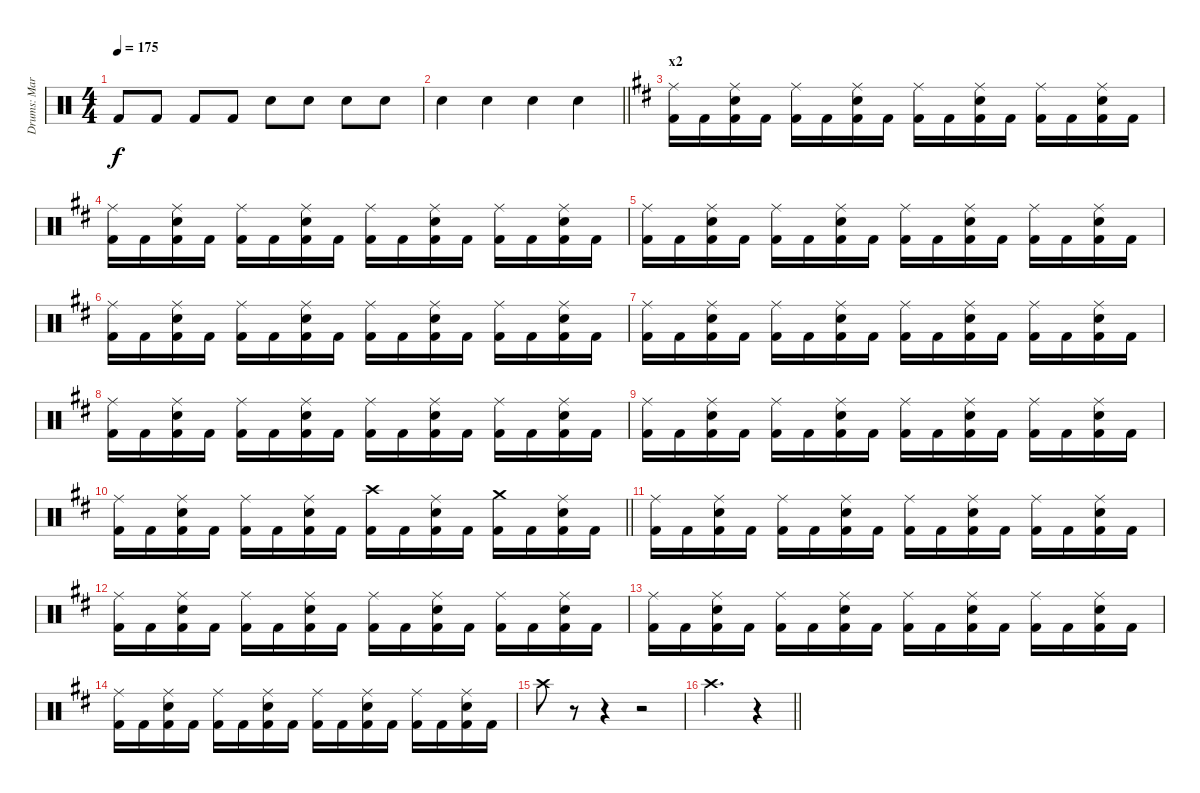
\track ("Drums: Martin Herzinger" "Drums: Mar") {instrument percussion}
\staff {score}
\articulation defaults
\ts (4 4)
\tempo 175
\clef neutral
\ks aminor "Kick (hit) 2".8{dy f} "Kick (hit) 2".8 "Kick (hit) 2".8 "Kick (hit) 2".8 "Snare (hit) 2".8 "Snare (hit) 2".8 "Snare (hit) 2".8 "Snare (hit) 2".8
|
\barLineRight lightlight "Snare (hit) 2".4 "Snare (hit) 2".4 "Snare (hit) 2".4 "Snare (hit) 2".4
|
\section ("" "x2")
\ks d
("Ride (middle)" "Kick (hit) 2").16 "Kick (hit) 2".16 ("Ride (middle)" "Snare (hit) 2" "Kick (hit) 2").16 "Kick (hit) 2".16 ("Ride (middle)" "Kick (hit) 2").16 "Kick (hit) 2".16 ("Ride (middle)" "Snare (hit) 2" "Kick (hit) 2").16 "Kick (hit) 2".16 ("Ride (middle)" "Kick (hit) 2").16 "Kick (hit) 2".16 ("Ride (middle)" "Snare (hit) 2" "Kick (hit) 2").16 "Kick (hit) 2".16 ("Ride (middle)" "Kick (hit) 2").16 "Kick (hit) 2".16 ("Ride (middle)" "Snare (hit) 2" "Kick (hit) 2").16 "Kick (hit) 2".16 |
("Ride (middle)" "Kick (hit) 2").16 "Kick (hit) 2".16 ("Ride (middle)" "Snare (hit) 2" "Kick (hit) 2").16 "Kick (hit) 2".16 ("Ride (middle)" "Kick (hit) 2").16 "Kick (hit) 2".16 ("Ride (middle)" "Snare (hit) 2" "Kick (hit) 2").16 "Kick (hit) 2".16 ("Ride (middle)" "Kick (hit) 2").16 "Kick (hit) 2".16 ("Ride (middle)" "Snare (hit) 2" "Kick (hit) 2").16 "Kick (hit) 2".16 ("Ride (middle)" "Kick (hit) 2").16 "Kick (hit) 2".16 ("Ride (middle)" "Snare (hit) 2" "Kick (hit) 2").16 "Kick (hit) 2".16 |
("Ride (middle)" "Kick (hit) 2").16 "Kick (hit) 2".16 ("Ride (middle)" "Snare (hit) 2" "Kick (hit) 2").16 "Kick (hit) 2".16 ("Ride (middle)" "Kick (hit) 2").16 "Kick (hit) 2".16 ("Ride (middle)" "Snare (hit) 2" "Kick (hit) 2").16 "Kick (hit) 2".16 ("Ride (middle)" "Kick (hit) 2").16 "Kick (hit) 2".16 ("Ride (middle)" "Snare (hit) 2" "Kick (hit) 2").16 "Kick (hit) 2".16 ("Ride (middle)" "Kick (hit) 2").16 "Kick (hit) 2".16 ("Ride (middle)" "Snare (hit) 2" "Kick (hit) 2").16 "Kick (hit) 2".16 |
("Ride (middle)" "Kick (hit) 2").16 "Kick (hit) 2".16 ("Ride (middle)" "Snare (hit) 2" "Kick (hit) 2").16 "Kick (hit) 2".16 ("Ride (middle)" "Kick (hit) 2").16 "Kick (hit) 2".16 ("Ride (middle)" "Snare (hit) 2" "Kick (hit) 2").16 "Kick (hit) 2".16 ("Ride (middle)" "Kick (hit) 2").16 "Kick (hit) 2".16 ("Ride (middle)" "Snare (hit) 2" "Kick (hit) 2").16 "Kick (hit) 2".16 ("Ride (middle)" "Kick (hit) 2").16 "Kick (hit) 2".16 ("Ride (middle)" "Snare (hit) 2" "Kick (hit) 2").16 "Kick (hit) 2".16 |
("Ride (middle)" "Kick (hit) 2").16 "Kick (hit) 2".16 ("Ride (middle)" "Snare (hit) 2" "Kick (hit) 2").16 "Kick (hit) 2".16 ("Ride (middle)" "Kick (hit) 2").16 "Kick (hit) 2".16 ("Ride (middle)" "Snare (hit) 2" "Kick (hit) 2").16 "Kick (hit) 2".16 ("Ride (middle)" "Kick (hit) 2").16 "Kick (hit) 2".16 ("Ride (middle)" "Snare (hit) 2" "Kick (hit) 2").16 "Kick (hit) 2".16 ("Ride (middle)" "Kick (hit) 2").16 "Kick (hit) 2".16 ("Ride (middle)" "Snare (hit) 2" "Kick (hit) 2").16 "Kick (hit) 2".16 |
("Ride (middle)" "Kick (hit) 2").16 "Kick (hit) 2".16 ("Ride (middle)" "Snare (hit) 2" "Kick (hit) 2").16 "Kick (hit) 2".16 ("Ride (middle)" "Kick (hit) 2").16 "Kick (hit) 2".16 ("Ride (middle)" "Snare (hit) 2" "Kick (hit) 2").16 "Kick (hit) 2".16 ("Ride (middle)" "Kick (hit) 2").16 "Kick (hit) 2".16 ("Ride (middle)" "Snare (hit) 2" "Kick (hit) 2").16 "Kick (hit) 2".16 ("Ride (middle)" "Kick (hit) 2").16 "Kick (hit) 2".16 ("Ride (middle)" "Snare (hit) 2" "Kick (hit) 2").16 "Kick (hit) 2".16 |
("Ride (middle)" "Kick (hit) 2").16 "Kick (hit) 2".16 ("Ride (middle)" "Snare (hit) 2" "Kick (hit) 2").16 "Kick (hit) 2".16 ("Ride (middle)" "Kick (hit) 2").16 "Kick (hit) 2".16 ("Ride (middle)" "Snare (hit) 2" "Kick (hit) 2").16 "Kick (hit) 2".16 ("Ride (middle)" "Kick (hit) 2").16 "Kick (hit) 2".16 ("Ride (middle)" "Snare (hit) 2" "Kick (hit) 2").16 "Kick (hit) 2".16 ("Ride (middle)" "Kick (hit) 2").16 "Kick (hit) 2".16 ("Ride (middle)" "Snare (hit) 2" "Kick (hit) 2").16 "Kick (hit) 2".16 |
\barLineRight lightlight
("Ride (middle)" "Kick (hit) 2").16 "Kick (hit) 2".16 ("Ride (middle)" "Snare (hit) 2" "Kick (hit) 2").16 "Kick (hit) 2".16 ("Ride (middle)" "Kick (hit) 2").16 "Kick (hit) 2".16 ("Ride (middle)" "Snare (hit) 2" "Kick (hit) 2").16 "Kick (hit) 2".16 ("Crash high (hit)" "Kick (hit) 2").16 "Kick (hit) 2".16 ("Ride (middle)" "Snare (hit) 2" "Kick (hit) 2").16 "Kick (hit) 2".16 ("Crash medium (hit)" "Kick (hit) 2").16 "Kick (hit) 2".16 ("Ride (middle)" "Snare (hit) 2" "Kick (hit) 2").16 "Kick (hit) 2".16 |
("Ride (middle)" "Kick (hit) 2").16 "Kick (hit) 2".16 ("Ride (middle)" "Snare (hit) 2" "Kick (hit) 2").16 "Kick (hit) 2".16 ("Ride (middle)" "Kick (hit) 2").16 "Kick (hit) 2".16 ("Ride (middle)" "Snare (hit) 2" "Kick (hit) 2").16 "Kick (hit) 2".16 ("Ride (middle)" "Kick (hit) 2").16 "Kick (hit) 2".16 ("Ride (middle)" "Snare (hit) 2" "Kick (hit) 2").16 "Kick (hit) 2".16 ("Ride (middle)" "Kick (hit) 2").16 "Kick (hit) 2".16 ("Ride (middle)" "Snare (hit) 2" "Kick (hit) 2").16 "Kick (hit) 2".16 |
("Ride (middle)" "Kick (hit) 2").16 "Kick (hit) 2".16 ("Ride (middle)" "Snare (hit) 2" "Kick (hit) 2").16 "Kick (hit) 2".16 ("Ride (middle)" "Kick (hit) 2").16 "Kick (hit) 2".16 ("Ride (middle)" "Snare (hit) 2" "Kick (hit) 2").16 "Kick (hit) 2".16 ("Ride (middle)" "Kick (hit) 2").16 "Kick (hit) 2".16 ("Ride (middle)" "Snare (hit) 2" "Kick (hit) 2").16 "Kick (hit) 2".16 ("Ride (middle)" "Kick (hit) 2").16 "Kick (hit) 2".16 ("Ride (middle)" "Snare (hit) 2" "Kick (hit) 2").16 "Kick (hit) 2".16 |
("Ride (middle)" "Kick (hit) 2").16 "Kick (hit) 2".16 ("Ride (middle)" "Snare (hit) 2" "Kick (hit) 2").16 "Kick (hit) 2".16 ("Ride (middle)" "Kick (hit) 2").16 "Kick (hit) 2".16 ("Ride (middle)" "Snare (hit) 2" "Kick (hit) 2").16 "Kick (hit) 2".16 ("Ride (middle)" "Kick (hit) 2").16 "Kick (hit) 2".16 ("Ride (middle)" "Snare (hit) 2" "Kick (hit) 2").16 "Kick (hit) 2".16 ("Ride (middle)" "Kick (hit) 2").16 "Kick (hit) 2".16 ("Ride (middle)" "Snare (hit) 2" "Kick (hit) 2").16 "Kick (hit) 2".16 |
("Ride (middle)" "Kick (hit) 2").16 "Kick (hit) 2".16 ("Ride (middle)" "Snare (hit) 2" "Kick (hit) 2").16 "Kick (hit) 2".16 ("Ride (middle)" "Kick (hit) 2").16 "Kick (hit) 2".16 ("Ride (middle)" "Snare (hit) 2" "Kick (hit) 2").16 "Kick (hit) 2".16 ("Ride (middle)" "Kick (hit) 2").16 "Kick (hit) 2".16 ("Ride (middle)" "Snare (hit) 2" "Kick (hit) 2").16 "Kick (hit) 2".16 ("Ride (middle)" "Kick (hit) 2").16 "Kick (hit) 2".16 ("Ride (middle)" "Snare (hit) 2" "Kick (hit) 2").16 "Kick (hit) 2".16 |
"Crash high (hit)".8 r.8 r.4 r.2 |
\barLineRight lightlight "Crash high (hit)".2{d}
r.4
